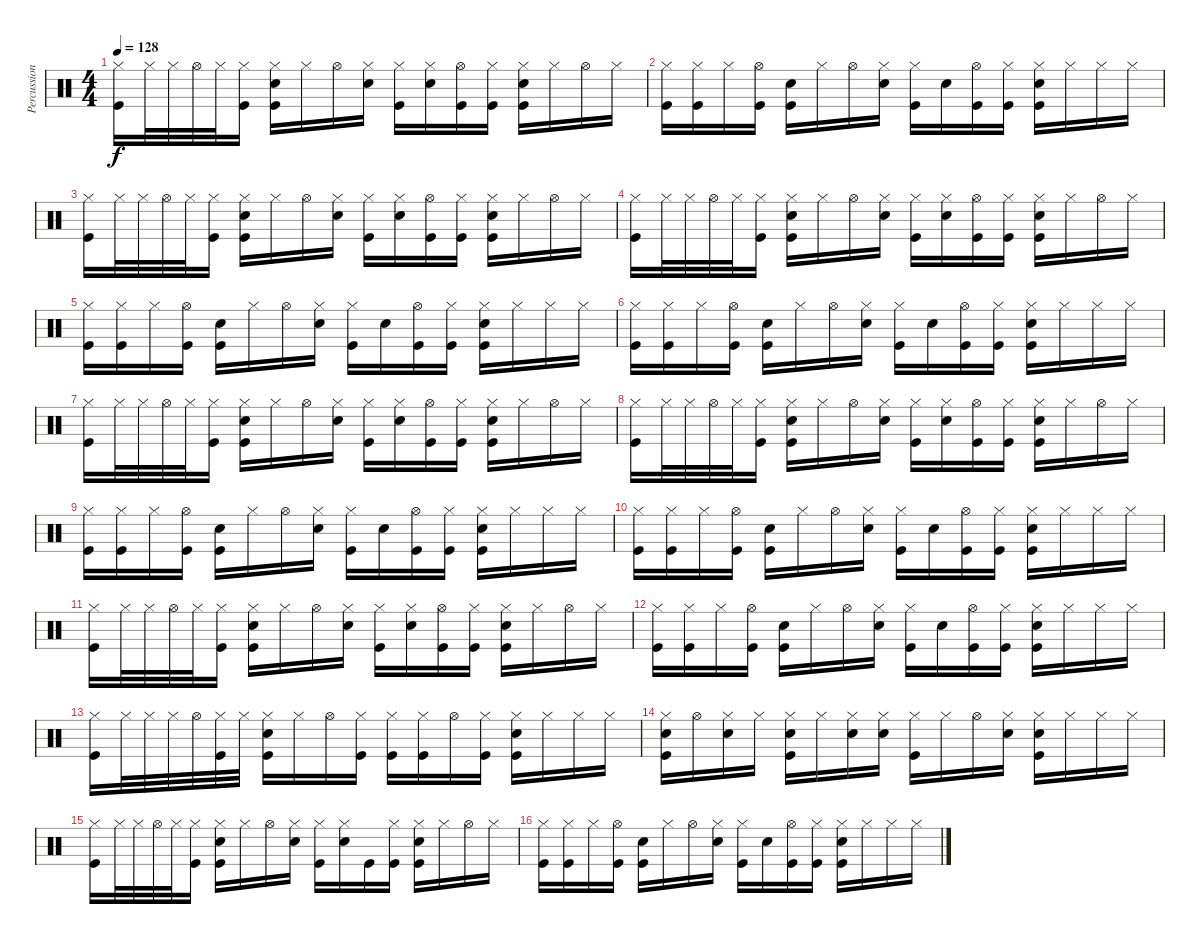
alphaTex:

\track ("Percussion" "Percussion") {instrument percussion}
\staff {score}
\articulation defaults
\ts (4 4)
\tempo 128
\clef neutral
\ks c
("Kick (hit)" "Hi-Hat (closed)").16{dy f} "Hi-Hat (closed)".32 "Hi-Hat (closed)".32 "Hi-Hat (open)".32 "Hi-Hat (closed)".32 ("Kick (hit)" "Hi-Hat (closed)").16 ("Kick (hit)" "Snare (hit) 2" "Hi-Hat (closed)").16 "Hi-Hat (closed)".16 "Hi-Hat (open)".16 ("Snare (hit) 2" "Hi-Hat (closed)").16 ("Kick (hit)" "Hi-Hat (closed)").16 ("Snare (hit) 2" "Hi-Hat (closed)").16 ("Kick (hit)" "Hi-Hat (open)").16 ("Kick (hit)" "Hi-Hat (closed)").16 ("Kick (hit)" "Snare (hit) 2" "Hi-Hat (closed)").16 "Hi-Hat (closed)".16 "Hi-Hat (open)".16 "Hi-Hat (closed)".16 |
("Kick (hit)" "Hi-Hat (closed)").16 ("Kick (hit)" "Hi-Hat (closed)").16 "Hi-Hat (closed)".16 ("Kick (hit)" "Hi-Hat (open)").16 ("Kick (hit)" "Snare (hit) 2").16 "Hi-Hat (closed)".16 "Hi-Hat (open)".16 ("Snare (hit) 2" "Hi-Hat (closed)").16 ("Kick (hit)" "Hi-Hat (closed)").16 "Snare (hit) 2".16 ("Kick (hit)" "Hi-Hat (open)").16 ("Kick (hit)" "Hi-Hat (closed)").16 ("Kick (hit)" "Snare (hit) 2" "Hi-Hat (closed)").16 "Hi-Hat (closed)".16 "Hi-Hat (closed)".16 "Hi-Hat (closed)".16 |
("Kick (hit)" "Hi-Hat (closed)").16 "Hi-Hat (closed)".32 "Hi-Hat (closed)".32 "Hi-Hat (open)".32 "Hi-Hat (closed)".32 ("Kick (hit)" "Hi-Hat (closed)").16 ("Kick (hit)" "Snare (hit) 2" "Hi-Hat (closed)").16 "Hi-Hat (closed)".16 "Hi-Hat (open)".16 ("Snare (hit) 2" "Hi-Hat (closed)").16 ("Kick (hit)" "Hi-Hat (closed)").16 ("Snare (hit) 2" "Hi-Hat (closed)").16 ("Kick (hit)" "Hi-Hat (open)").16 ("Kick (hit)" "Hi-Hat (closed)").16 ("Kick (hit)" "Snare (hit) 2" "Hi-Hat (closed)").16 "Hi-Hat (closed)".16 "Hi-Hat (open)".16 "Hi-Hat (closed)".16 |
("Kick (hit)" "Hi-Hat (closed)").16 "Hi-Hat (closed)".32 "Hi-Hat (closed)".32 "Hi-Hat (open)".32 "Hi-Hat (closed)".32 ("Kick (hit)" "Hi-Hat (closed)").16 ("Kick (hit)" "Snare (hit) 2" "Hi-Hat (closed)").16 "Hi-Hat (closed)".16 "Hi-Hat (open)".16 ("Snare (hit) 2" "Hi-Hat (closed)").16 ("Kick (hit)" "Hi-Hat (closed)").16 ("Snare (hit) 2" "Hi-Hat (closed)").16 ("Kick (hit)" "Hi-Hat (open)").16 ("Kick (hit)" "Hi-Hat (closed)").16 ("Kick (hit)" "Snare (hit) 2" "Hi-Hat (closed)").16 "Hi-Hat (closed)".16 "Hi-Hat (open)".16 "Hi-Hat (closed)".16 |
("Kick (hit)" "Hi-Hat (closed)").16 ("Kick (hit)" "Hi-Hat (closed)").16 "Hi-Hat (closed)".16 ("Kick (hit)" "Hi-Hat (open)").16 ("Kick (hit)" "Snare (hit) 2").16 "Hi-Hat (closed)".16 "Hi-Hat (open)".16 ("Snare (hit) 2" "Hi-Hat (closed)").16 ("Kick (hit)" "Hi-Hat (closed)").16 "Snare (hit) 2".16 ("Kick (hit)" "Hi-Hat (open)").16 ("Kick (hit)" "Hi-Hat (closed)").16 ("Kick (hit)" "Snare (hit) 2" "Hi-Hat (closed)").16 "Hi-Hat (closed)".16 "Hi-Hat (closed)".16 "Hi-Hat (closed)".16 |
("Kick (hit)" "Hi-Hat (closed)").16 ("Kick (hit)" "Hi-Hat (closed)").16 "Hi-Hat (closed)".16 ("Kick (hit)" "Hi-Hat (open)").16 ("Kick (hit)" "Snare (hit) 2").16 "Hi-Hat (closed)".16 "Hi-Hat (open)".16 ("Snare (hit) 2" "Hi-Hat (closed)").16 ("Kick (hit)" "Hi-Hat (closed)").16 "Snare (hit) 2".16 ("Kick (hit)" "Hi-Hat (open)").16 ("Kick (hit)" "Hi-Hat (closed)").16 ("Kick (hit)" "Snare (hit) 2" "Hi-Hat (closed)").16 "Hi-Hat (closed)".16 "Hi-Hat (closed)".16 "Hi-Hat (closed)".16 |
("Kick (hit)" "Hi-Hat (closed)").16 "Hi-Hat (closed)".32 "Hi-Hat (closed)".32 "Hi-Hat (open)".32 "Hi-Hat (closed)".32 ("Kick (hit)" "Hi-Hat (closed)").16 ("Kick (hit)" "Snare (hit) 2" "Hi-Hat (closed)").16 "Hi-Hat (closed)".16 "Hi-Hat (open)".16 ("Snare (hit) 2" "Hi-Hat (closed)").16 ("Kick (hit)" "Hi-Hat (closed)").16 ("Snare (hit) 2" "Hi-Hat (closed)").16 ("Kick (hit)" "Hi-Hat (open)").16 ("Kick (hit)" "Hi-Hat (closed)").16 ("Kick (hit)" "Snare (hit) 2" "Hi-Hat (closed)").16 "Hi-Hat (closed)".16 "Hi-Hat (open)".16 "Hi-Hat (closed)".16 |
("Kick (hit)" "Hi-Hat (closed)").16 "Hi-Hat (closed)".32 "Hi-Hat (closed)".32 "Hi-Hat (open)".32 "Hi-Hat (closed)".32 ("Kick (hit)" "Hi-Hat (closed)").16 ("Kick (hit)" "Snare (hit) 2" "Hi-Hat (closed)").16 "Hi-Hat (closed)".16 "Hi-Hat (open)".16 ("Snare (hit) 2" "Hi-Hat (closed)").16 ("Kick (hit)" "Hi-Hat (closed)").16 ("Snare (hit) 2" "Hi-Hat (closed)").16 ("Kick (hit)" "Hi-Hat (open)").16 ("Kick (hit)" "Hi-Hat (closed)").16 ("Kick (hit)" "Snare (hit) 2" "Hi-Hat (closed)").16 "Hi-Hat (closed)".16 "Hi-Hat (open)".16 "Hi-Hat (closed)".16 |
("Kick (hit)" "Hi-Hat (closed)").16 ("Kick (hit)" "Hi-Hat (closed)").16 "Hi-Hat (closed)".16 ("Kick (hit)" "Hi-Hat (open)").16 ("Kick (hit)" "Snare (hit) 2").16 "Hi-Hat (closed)".16 "Hi-Hat (open)".16 ("Snare (hit) 2" "Hi-Hat (closed)").16 ("Kick (hit)" "Hi-Hat (closed)").16 "Snare (hit) 2".16 ("Kick (hit)" "Hi-Hat (open)").16 ("Kick (hit)" "Hi-Hat (closed)").16 ("Kick (hit)" "Snare (hit) 2" "Hi-Hat (closed)").16 "Hi-Hat (closed)".16 "Hi-Hat (closed)".16 "Hi-Hat (closed)".16 |
("Kick (hit)" "Hi-Hat (closed)").16 ("Kick (hit)" "Hi-Hat (closed)").16 "Hi-Hat (closed)".16 ("Kick (hit)" "Hi-Hat (open)").16 ("Kick (hit)" "Snare (hit) 2").16 "Hi-Hat (closed)".16 "Hi-Hat (open)".16 ("Snare (hit) 2" "Hi-Hat (closed)").16 ("Kick (hit)" "Hi-Hat (closed)").16 "Snare (hit) 2".16 ("Kick (hit)" "Hi-Hat (open)").16 ("Kick (hit)" "Hi-Hat (closed)").16 ("Kick (hit)" "Snare (hit) 2" "Hi-Hat (closed)").16 "Hi-Hat (closed)".16 "Hi-Hat (closed)".16 "Hi-Hat (closed)".16 |
("Kick (hit)" "Hi-Hat (closed)").16 "Hi-Hat (closed)".32 "Hi-Hat (closed)".32 "Hi-Hat (open)".32 "Hi-Hat (closed)".32 ("Kick (hit)" "Hi-Hat (closed)").16 ("Kick (hit)" "Snare (hit) 2" "Hi-Hat (closed)").16 "Hi-Hat (closed)".16 "Hi-Hat (open)".16 ("Snare (hit) 2" "Hi-Hat (closed)").16 ("Kick (hit)" "Hi-Hat (closed)").16 ("Snare (hit) 2" "Hi-Hat (closed)").16 ("Kick (hit)" "Hi-Hat (open)").16 ("Kick (hit)" "Hi-Hat (closed)").16 ("Kick (hit)" "Snare (hit) 2" "Hi-Hat (closed)").16 "Hi-Hat (closed)".16 "Hi-Hat (open)".16 "Hi-Hat (closed)".16 |
("Kick (hit)" "Hi-Hat (closed)").16 ("Kick (hit)" "Hi-Hat (closed)").16 "Hi-Hat (closed)".16 ("Kick (hit)" "Hi-Hat (open)").16 ("Kick (hit)" "Snare (hit) 2").16 "Hi-Hat (closed)".16 "Hi-Hat (open)".16 ("Snare (hit) 2" "Hi-Hat (closed)").16 ("Kick (hit)" "Hi-Hat (closed)").16 "Snare (hit) 2".16 ("Kick (hit)" "Hi-Hat (open)").16 ("Kick (hit)" "Hi-Hat (closed)").16 ("Kick (hit)" "Snare (hit) 2" "Hi-Hat (closed)").16 "Hi-Hat (closed)".16 "Hi-Hat (closed)".16 "Hi-Hat (closed)".16 |
("Kick (hit)" "Hi-Hat (closed)").16 "Hi-Hat (closed)".32 "Hi-Hat (closed)".32 "Hi-Hat (closed)".32 "Hi-Hat (open)".32 ("Kick (hit)" "Hi-Hat (closed)").32 "Hi-Hat (closed)".32 ("Kick (hit)" "Snare (hit) 2" "Hi-Hat (closed)").16 "Hi-Hat (closed)".16 "Hi-Hat (open)".16 ("Kick (hit)" "Hi-Hat (closed)").16 ("Kick (hit)" "Hi-Hat (closed)").16 ("Kick (hit)" "Hi-Hat (closed)").16 "Hi-Hat (open)".16 ("Kick (hit)" "Hi-Hat (closed)").16 ("Kick (hit)" "Snare (hit) 2" "Hi-Hat (closed)").16 "Hi-Hat (closed)".16 "Hi-Hat (closed)".16 "Hi-Hat (closed)".16 |
("Kick (hit)" "Snare (hit) 2" "Hi-Hat (closed)").16 "Hi-Hat (open)".16 ("Snare (hit) 2" "Hi-Hat (closed)").16 "Hi-Hat (closed)".16 ("Kick (hit)" "Snare (hit) 2" "Hi-Hat (closed)").16 "Hi-Hat (closed)".16 ("Snare (hit) 2" "Hi-Hat (closed)").16 ("Snare (hit) 2" "Hi-Hat (closed)").16 ("Kick (hit)" "Hi-Hat (closed)").16 "Hi-Hat (closed)".16 "Hi-Hat (open)".16 ("Snare (hit) 2" "Hi-Hat (closed)").16 ("Kick (hit)" "Snare (hit) 2" "Hi-Hat (closed)").16 "Hi-Hat (closed)".16 "Hi-Hat (closed)".16 "Hi-Hat (closed)".16 |
("Kick (hit)" "Hi-Hat (closed)").16 "Hi-Hat (closed)".32 "Hi-Hat (closed)".32 "Hi-Hat (open)".32 "Hi-Hat (closed)".32 ("Kick (hit)" "Hi-Hat (closed)").16 ("Kick (hit)" "Snare (hit) 2" "Hi-Hat (closed)").16 "Hi-Hat (closed)".16 "Hi-Hat (open)".16 ("Snare (hit) 2" "Hi-Hat (closed)").16 ("Kick (hit)" "Hi-Hat (closed)").16 ("Snare (hit) 2" "Hi-Hat (closed)").16 "Kick (hit)".16 ("Kick (hit)" "Hi-Hat (closed)").16 ("Kick (hit)" "Snare (hit) 2" "Hi-Hat (closed)").16 "Hi-Hat (closed)".16 "Hi-Hat (open)".16 "Hi-Hat (closed)".16 |
("Kick (hit)" "Hi-Hat (closed)").16 ("Kick (hit)" "Hi-Hat (closed)").16 "Hi-Hat (closed)".16 ("Kick (hit)" "Hi-Hat (open)").16 ("Kick (hit)" "Snare (hit) 2").16 "Hi-Hat (closed)".16 "Hi-Hat (open)".16 ("Snare (hit) 2" "Hi-Hat (closed)").16 ("Kick (hit)" "Hi-Hat (closed)").16 "Snare (hit) 2".16 ("Kick (hit)" "Hi-Hat (open)").16 ("Kick (hit)" "Hi-Hat (closed)").16 ("Kick (hit)" "Snare (hit) 2" "Hi-Hat (closed)").16 "Hi-Hat (closed)".16 "Hi-Hat (closed)".16 "Hi-Hat (closed)".16
